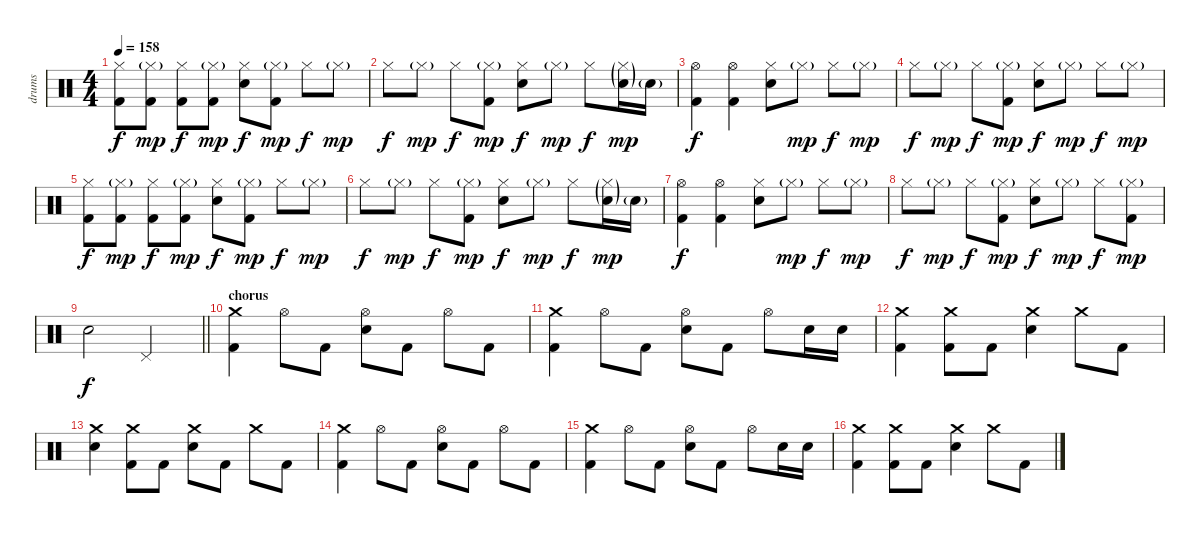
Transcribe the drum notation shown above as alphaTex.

\track ("drums" "drums") {instrument percussion}
\staff {score}
\articulation defaults
\ts (4 4)
\tempo 158
\clef neutral
\ks c
("Hi-Hat (closed)" "Kick (hit) 2").8{dy f} ("Hi-Hat (closed)"{g} "Kick (hit) 2").8{dy mp} ("Hi-Hat (closed)" "Kick (hit) 2").8{dy f} ("Hi-Hat (closed)"{g} "Kick (hit) 2").8{dy mp} ("Hi-Hat (closed)" "Electric Snare (hit)").8{dy f} ("Hi-Hat (closed)"{g} "Kick (hit) 2").8{dy mp} "Hi-Hat (closed)".8{dy f} "Hi-Hat (closed)"{g}.8{dy mp} |
"Hi-Hat (closed)".8{dy f} "Hi-Hat (closed)"{g}.8{dy mp} "Hi-Hat (closed)".8{dy f} ("Hi-Hat (closed)"{g} "Kick (hit) 2").8{dy mp} ("Hi-Hat (closed)" "Electric Snare (hit)").8{dy f} "Hi-Hat (closed)"{g}.8{dy mp} "Hi-Hat (closed)".8{dy f} ("Hi-Hat (closed)"{g} "Electric Snare (hit)"{g}).16{dy mp} "Electric Snare (hit)"{g}.16 |
("Hi-Hat (open)" "Kick (hit) 2").4{dy f} ("Hi-Hat (open)" "Kick (hit) 2").4 ("Hi-Hat (closed)" "Electric Snare (hit)").8 "Hi-Hat (closed)"{g}.8{dy mp} "Hi-Hat (closed)".8{dy f} "Hi-Hat (closed)"{g}.8{dy mp} |
"Hi-Hat (closed)".8{dy f} "Hi-Hat (closed)"{g}.8{dy mp} "Hi-Hat (closed)".8{dy f} ("Hi-Hat (closed)"{g} "Kick (hit) 2").8{dy mp} ("Hi-Hat (closed)" "Electric Snare (hit)").8{dy f} "Hi-Hat (closed)"{g}.8{dy mp} "Hi-Hat (closed)".8{dy f} "Hi-Hat (closed)"{g}.8{dy mp} |
("Hi-Hat (closed)" "Kick (hit) 2").8{dy f} ("Hi-Hat (closed)"{g} "Kick (hit) 2").8{dy mp} ("Hi-Hat (closed)" "Kick (hit) 2").8{dy f} ("Hi-Hat (closed)"{g} "Kick (hit) 2").8{dy mp} ("Hi-Hat (closed)" "Electric Snare (hit)").8{dy f} ("Hi-Hat (closed)"{g} "Kick (hit) 2").8{dy mp} "Hi-Hat (closed)".8{dy f} "Hi-Hat (closed)"{g}.8{dy mp} |
"Hi-Hat (closed)".8{dy f} "Hi-Hat (closed)"{g}.8{dy mp} "Hi-Hat (closed)".8{dy f} ("Hi-Hat (closed)"{g} "Kick (hit) 2").8{dy mp} ("Hi-Hat (closed)" "Electric Snare (hit)").8{dy f} "Hi-Hat (closed)"{g}.8{dy mp} "Hi-Hat (closed)".8{dy f} ("Hi-Hat (closed)"{g} "Electric Snare (hit)"{g}).16{dy mp} "Electric Snare (hit)"{g}.16 |
("Hi-Hat (open)" "Kick (hit) 2").4{dy f} ("Hi-Hat (open)" "Kick (hit) 2").4 ("Hi-Hat (closed)" "Electric Snare (hit)").8 "Hi-Hat (closed)"{g}.8{dy mp} "Hi-Hat (closed)".8{dy f} "Hi-Hat (closed)"{g}.8{dy mp} |
"Hi-Hat (closed)".8{dy f} "Hi-Hat (closed)"{g}.8{dy mp} "Hi-Hat (closed)".8{dy f} ("Hi-Hat (closed)"{g} "Kick (hit) 2").8{dy mp} ("Hi-Hat (closed)" "Electric Snare (hit)").8{dy f} "Hi-Hat (closed)"{g}.8{dy mp} "Hi-Hat (closed)".8{dy f} ("Hi-Hat (closed)"{g} "Kick (hit) 2").8{dy mp} |
\barLineRight lightlight "Electric Snare (hit)".2{dy f} "Pedal Hi-Hat (hit)".2
|
\section ("" "chorus")
("Crash medium (hit)" "Kick (hit) 2").4 "Hi-Hat (open)".8 "Kick (hit) 2".8 ("Hi-Hat (open)" "Electric Snare (hit)").8 "Kick (hit) 2".8 "Hi-Hat (open)".8 "Kick (hit) 2".8 |
("Crash medium (hit)" "Kick (hit) 2").4 "Hi-Hat (open)".8 "Kick (hit) 2".8 ("Hi-Hat (open)" "Electric Snare (hit)").8 "Kick (hit) 2".8 "Hi-Hat (open)".8 "Electric Snare (hit)".16 "Electric Snare (hit)".16 |
("Crash medium (hit)" "Kick (hit) 2").4 ("Crash medium (hit)" "Kick (hit) 2").8 "Kick (hit) 2".8 ("Crash medium (hit)" "Electric Snare (hit)").4 "Crash medium (hit)".8 "Kick (hit) 2".8 |
("Crash medium (hit)" "Electric Snare (hit)").4 ("Crash medium (hit)" "Kick (hit) 2").8 "Kick (hit) 2".8 ("Crash medium (hit)" "Electric Snare (hit)").8 "Kick (hit) 2".8 "Crash medium (hit)".8 "Kick (hit) 2".8 |
("Crash medium (hit)" "Kick (hit) 2").4 "Hi-Hat (open)".8 "Kick (hit) 2".8 ("Hi-Hat (open)" "Electric Snare (hit)").8 "Kick (hit) 2".8 "Hi-Hat (open)".8 "Kick (hit) 2".8 |
("Crash medium (hit)" "Kick (hit) 2").4 "Hi-Hat (open)".8 "Kick (hit) 2".8 ("Hi-Hat (open)" "Electric Snare (hit)").8 "Kick (hit) 2".8 "Hi-Hat (open)".8 "Electric Snare (hit)".16 "Electric Snare (hit)".16 |
("Crash medium (hit)" "Kick (hit) 2").4 ("Crash medium (hit)" "Kick (hit) 2").8 "Kick (hit) 2".8 ("Crash medium (hit)" "Electric Snare (hit)").4 "Crash medium (hit)".8 "Kick (hit) 2".8
